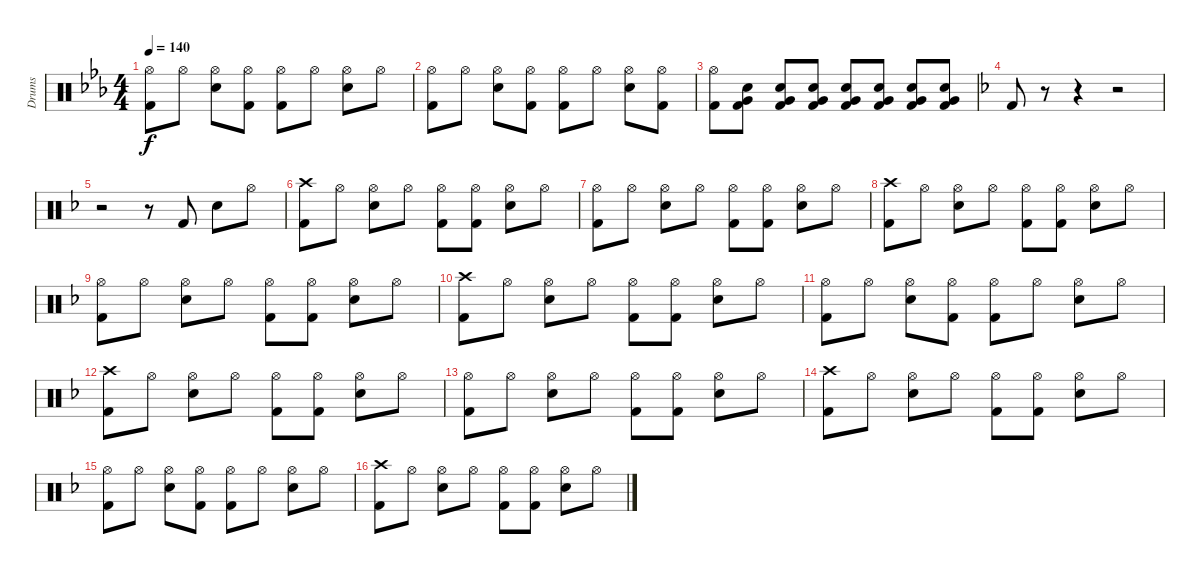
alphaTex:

\track ("Drums" "Drums") {instrument percussion}
\staff {score}
\articulation defaults
\ts (4 4)
\tempo 140
\clef neutral
\ks eb
("Hi-Hat (open)" "Kick (hit) 2").8{dy f} "Hi-Hat (open)".8 ("Hi-Hat (open)" "Snare (hit) 2").8 ("Hi-Hat (open)" "Kick (hit) 2").8 ("Hi-Hat (open)" "Kick (hit) 2").8 "Hi-Hat (open)".8 ("Hi-Hat (open)" "Snare (hit) 2").8 "Hi-Hat (open)".8 |
("Hi-Hat (open)" "Kick (hit) 2").8 "Hi-Hat (open)".8 ("Hi-Hat (open)" "Snare (hit) 2").8 ("Hi-Hat (open)" "Kick (hit) 2").8 ("Hi-Hat (open)" "Kick (hit) 2").8 "Hi-Hat (open)".8 ("Hi-Hat (open)" "Snare (hit) 2").8 ("Hi-Hat (open)" "Kick (hit) 2").8 |
("Hi-Hat (open)" "Kick (hit) 2").8 ("Snare (hit) 2" "Very Low Tom (hit)" "Kick (hit) 2").8 ("Snare (hit) 2" "Very Low Tom (hit)" "Kick (hit) 2").8 ("Snare (hit) 2" "Very Low Tom (hit)" "Kick (hit) 2").8 ("Snare (hit) 2" "Very Low Tom (hit)" "Kick (hit) 2").8 ("Snare (hit) 2" "Very Low Tom (hit)" "Kick (hit) 2").8 ("Snare (hit) 2" "Very Low Tom (hit)" "Kick (hit) 2").8 ("Snare (hit) 2" "Very Low Tom (hit)" "Kick (hit) 2").8 |
\ks f "Kick (hit) 2".8
r.8 r.4 r.2 |
r.2 r.8 "Kick (hit) 2".8 "Snare (hit) 2".8 "Hi-Hat (open)".8 |
("Crash high (hit)" "Kick (hit) 2").8 "Hi-Hat (open)".8 ("Hi-Hat (open)" "Snare (hit) 2").8 "Hi-Hat (open)".8 ("Hi-Hat (open)" "Kick (hit) 2").8 ("Hi-Hat (open)" "Kick (hit) 2").8 ("Hi-Hat (open)" "Snare (hit) 2").8 "Hi-Hat (open)".8 |
("Hi-Hat (open)" "Kick (hit) 2").8 "Hi-Hat (open)".8 ("Hi-Hat (open)" "Snare (hit) 2").8 "Hi-Hat (open)".8 ("Hi-Hat (open)" "Kick (hit) 2").8 ("Hi-Hat (open)" "Kick (hit) 2").8 ("Hi-Hat (open)" "Snare (hit) 2").8 "Hi-Hat (open)".8 |
("Crash high (hit)" "Kick (hit) 2").8 "Hi-Hat (open)".8 ("Hi-Hat (open)" "Snare (hit) 2").8 "Hi-Hat (open)".8 ("Hi-Hat (open)" "Kick (hit) 2").8 ("Hi-Hat (open)" "Kick (hit) 2").8 ("Hi-Hat (open)" "Snare (hit) 2").8 "Hi-Hat (open)".8 |
("Hi-Hat (open)" "Kick (hit) 2").8 "Hi-Hat (open)".8 ("Hi-Hat (open)" "Snare (hit) 2").8 "Hi-Hat (open)".8 ("Hi-Hat (open)" "Kick (hit) 2").8 ("Hi-Hat (open)" "Kick (hit) 2").8 ("Hi-Hat (open)" "Snare (hit) 2").8 "Hi-Hat (open)".8 |
("Crash high (hit)" "Kick (hit) 2").8 "Hi-Hat (open)".8 ("Hi-Hat (open)" "Snare (hit) 2").8 "Hi-Hat (open)".8 ("Hi-Hat (open)" "Kick (hit) 2").8 ("Hi-Hat (open)" "Kick (hit) 2").8 ("Hi-Hat (open)" "Snare (hit) 2").8 "Hi-Hat (open)".8 |
("Hi-Hat (open)" "Kick (hit) 2").8 "Hi-Hat (open)".8 ("Hi-Hat (open)" "Snare (hit) 2").8 ("Hi-Hat (open)" "Kick (hit) 2").8 ("Hi-Hat (open)" "Kick (hit) 2").8 "Hi-Hat (open)".8 ("Hi-Hat (open)" "Snare (hit) 2").8 "Hi-Hat (open)".8 |
("Crash high (hit)" "Kick (hit) 2").8 "Hi-Hat (open)".8 ("Hi-Hat (open)" "Snare (hit) 2").8 "Hi-Hat (open)".8 ("Hi-Hat (open)" "Kick (hit) 2").8 ("Hi-Hat (open)" "Kick (hit) 2").8 ("Hi-Hat (open)" "Snare (hit) 2").8 "Hi-Hat (open)".8 |
("Hi-Hat (open)" "Kick (hit) 2").8 "Hi-Hat (open)".8 ("Hi-Hat (open)" "Snare (hit) 2").8 "Hi-Hat (open)".8 ("Hi-Hat (open)" "Kick (hit) 2").8 ("Hi-Hat (open)" "Kick (hit) 2").8 ("Hi-Hat (open)" "Snare (hit) 2").8 "Hi-Hat (open)".8 |
("Crash high (hit)" "Kick (hit) 2").8 "Hi-Hat (open)".8 ("Hi-Hat (open)" "Snare (hit) 2").8 "Hi-Hat (open)".8 ("Hi-Hat (open)" "Kick (hit) 2").8 ("Hi-Hat (open)" "Kick (hit) 2").8 ("Hi-Hat (open)" "Snare (hit) 2").8 "Hi-Hat (open)".8 |
("Hi-Hat (open)" "Kick (hit) 2").8 "Hi-Hat (open)".8 ("Hi-Hat (open)" "Snare (hit) 2").8 ("Hi-Hat (open)" "Kick (hit) 2").8 ("Hi-Hat (open)" "Kick (hit) 2").8 "Hi-Hat (open)".8 ("Hi-Hat (open)" "Snare (hit) 2").8 "Hi-Hat (open)".8 |
("Crash high (hit)" "Kick (hit) 2").8 "Hi-Hat (open)".8 ("Hi-Hat (open)" "Snare (hit) 2").8 "Hi-Hat (open)".8 ("Hi-Hat (open)" "Kick (hit) 2").8 ("Hi-Hat (open)" "Kick (hit) 2").8 ("Hi-Hat (open)" "Snare (hit) 2").8 "Hi-Hat (open)".8
